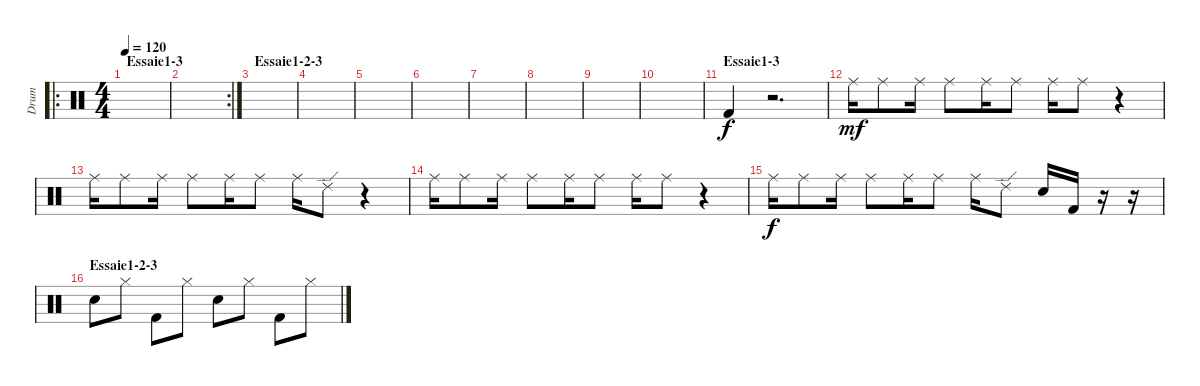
\track ("Drum" "Drum") {instrument percussion}
\staff {score}
\articulation defaults
\ro
\ts (4 4)
\section ("" "Essaie1-3")
\tempo 120
\clef neutral
\ks c
|
\rc 2
|
\section ("" "Essaie1-2-3")
|
|
|
|
|
|
|
|
\section ("" "Essaie1-3")
"Kick (hit) 2".4 r.2{d} |
"Ride (middle)".16{dy mf} "Ride (middle)".8 "Ride (middle)".16 "Ride (middle)".8 "Ride (middle)".16 "Ride (middle)".8 "Ride (middle)".16 "Ride (middle)".8 r.4 |
"Ride (middle)".16 "Ride (middle)".8 "Ride (middle)".16 "Ride (middle)".8 "Ride (middle)".16 "Ride (middle)".8 "Ride (middle)".16 "Ride (edge) 2".8 r.4 |
"Ride (middle)".16 "Ride (middle)".8 "Ride (middle)".16 "Ride (middle)".8 "Ride (middle)".16 "Ride (middle)".8 "Ride (middle)".16 "Ride (middle)".8 r.4 |
"Ride (middle)".16{dy f} "Ride (middle)".8 "Ride (middle)".16 "Ride (middle)".8 "Ride (middle)".16 "Ride (middle)".8 "Ride (middle)".16 "Ride (edge) 2".8 "Electric Snare (hit)".16 "Kick (hit) 2".16 r.16 r.16 |
\section ("" "Essaie1-2-3")
"Electric Snare (hit)".8 "Hi-Hat (closed)".8 "Kick (hit) 2".8 "Hi-Hat (closed)".8 "Electric Snare (hit)".8 "Hi-Hat (closed)".8 "Kick (hit) 2".8 "Hi-Hat (closed)".8
